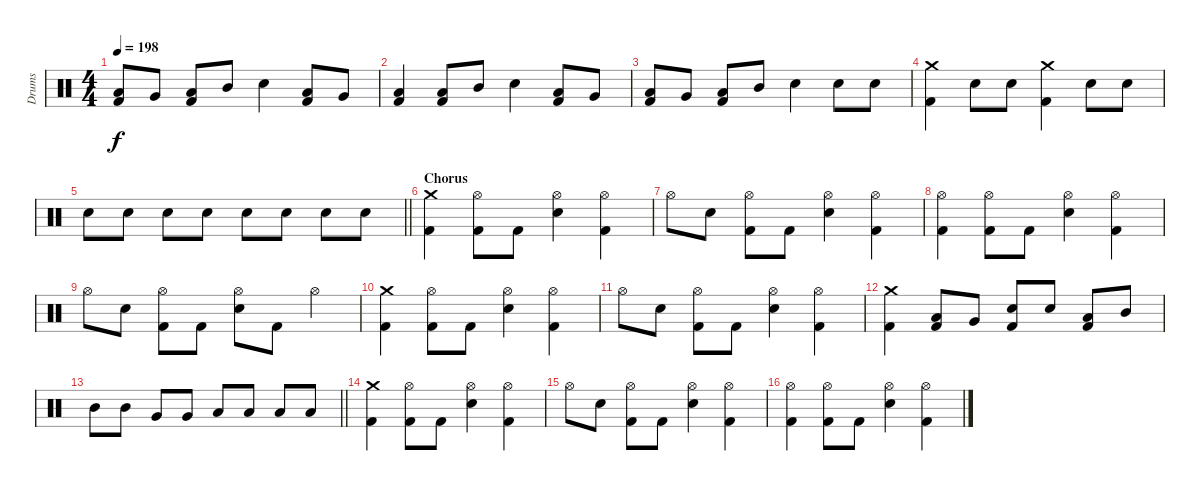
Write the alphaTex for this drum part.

\track ("Drums" "Drums") {instrument percussion}
\staff {score}
\articulation defaults
\ts (4 4)
\tempo 198
\clef neutral
\ks c
("Low Floor Tom (hit)" "Kick (hit) 2").8{dy f} "Very Low Tom (hit)".8 ("Low Tom (hit)" "Kick (hit) 2").8 "Mid Tom (hit)".8 "Snare (hit) 2".4 ("Low Floor Tom (hit)" "Kick (hit) 2").8 "Very Low Tom (hit)".8 |
("Low Floor Tom (hit)" "Kick (hit) 2").4 ("Low Tom (hit)" "Kick (hit) 2").8 "Mid Tom (hit)".8 "Snare (hit) 2".4 ("Low Floor Tom (hit)" "Kick (hit) 2").8 "Very Low Tom (hit)".8 |
("Low Floor Tom (hit)" "Kick (hit) 2").8 "Very Low Tom (hit)".8 ("Low Tom (hit)" "Kick (hit) 2").8 "Mid Tom (hit)".8 "Snare (hit) 2".4 "Snare (hit) 2".8 "Snare (hit) 2".8 |
("Crash medium (hit)" "Kick (hit) 2").4 "Snare (hit) 2".8 "Snare (hit) 2".8 ("Crash medium (hit)" "Kick (hit) 2").4 "Snare (hit) 2".8 "Snare (hit) 2".8 |
\barLineRight lightlight "Snare (hit) 2".8 "Snare (hit) 2".8 "Snare (hit) 2".8 "Snare (hit) 2".8 "Snare (hit) 2".8 "Snare (hit) 2".8 "Snare (hit) 2".8 "Snare (hit) 2".8
|
\section ("" "Chorus")
("Crash medium (hit)" "Kick (hit) 2").4 ("Hi-Hat (open)" "Kick (hit) 2").8 "Kick (hit) 2".8 ("Hi-Hat (open)" "Snare (hit) 2").4 ("Hi-Hat (open)" "Kick (hit) 2").4 |
"Hi-Hat (open)".8 "Snare (hit) 2".8 ("Hi-Hat (open)" "Kick (hit) 2").8 "Kick (hit) 2".8 ("Hi-Hat (open)" "Snare (hit) 2").4 ("Hi-Hat (open)" "Kick (hit) 2").4 |
("Hi-Hat (open)" "Kick (hit) 2").4 ("Hi-Hat (open)" "Kick (hit) 2").8 "Kick (hit) 2".8 ("Hi-Hat (open)" "Snare (hit) 2").4 ("Hi-Hat (open)" "Kick (hit) 2").4 |
"Hi-Hat (open)".8 "Snare (hit) 2".8 ("Hi-Hat (open)" "Kick (hit) 2").8 "Kick (hit) 2".8 ("Hi-Hat (open)" "Snare (hit) 2").8 "Kick (hit) 2".8 "Hi-Hat (open)".4 |
("Crash medium (hit)" "Kick (hit) 2").4 ("Hi-Hat (open)" "Kick (hit) 2").8 "Kick (hit) 2".8 ("Hi-Hat (open)" "Snare (hit) 2").4 ("Hi-Hat (open)" "Kick (hit) 2").4 |
"Hi-Hat (open)".8 "Snare (hit) 2".8 ("Hi-Hat (open)" "Kick (hit) 2").8 "Kick (hit) 2".8 ("Hi-Hat (open)" "Snare (hit) 2").4 ("Hi-Hat (open)" "Kick (hit) 2").4 |
("Crash medium (hit)" "Kick (hit) 2").4 ("Low Floor Tom (hit)" "Kick (hit) 2").8 "Very Low Tom (hit)".8 ("Snare (hit) 2" "Kick (hit) 2").8 "Snare (hit) 2".8 ("Low Tom (hit)" "Kick (hit) 2").8 "Mid Tom (hit)".8 |
\barLineRight lightlight "Mid Tom (hit)".8 "Mid Tom (hit)".8 "Very Low Tom (hit)".8 "Very Low Tom (hit)".8 "Low Tom (hit)".8 "Low Tom (hit)".8 "Low Floor Tom (hit)".8 "Low Floor Tom (hit)".8
|
\section ("" "")
("Crash medium (hit)" "Kick (hit) 2").4 ("Hi-Hat (open)" "Kick (hit) 2").8 "Kick (hit) 2".8 ("Hi-Hat (open)" "Snare (hit) 2").4 ("Hi-Hat (open)" "Kick (hit) 2").4 |
"Hi-Hat (open)".8 "Snare (hit) 2".8 ("Hi-Hat (open)" "Kick (hit) 2").8 "Kick (hit) 2".8 ("Hi-Hat (open)" "Snare (hit) 2").4 ("Hi-Hat (open)" "Kick (hit) 2").4 |
("Hi-Hat (open)" "Kick (hit) 2").4 ("Hi-Hat (open)" "Kick (hit) 2").8 "Kick (hit) 2".8 ("Hi-Hat (open)" "Snare (hit) 2").4 ("Hi-Hat (open)" "Kick (hit) 2").4
